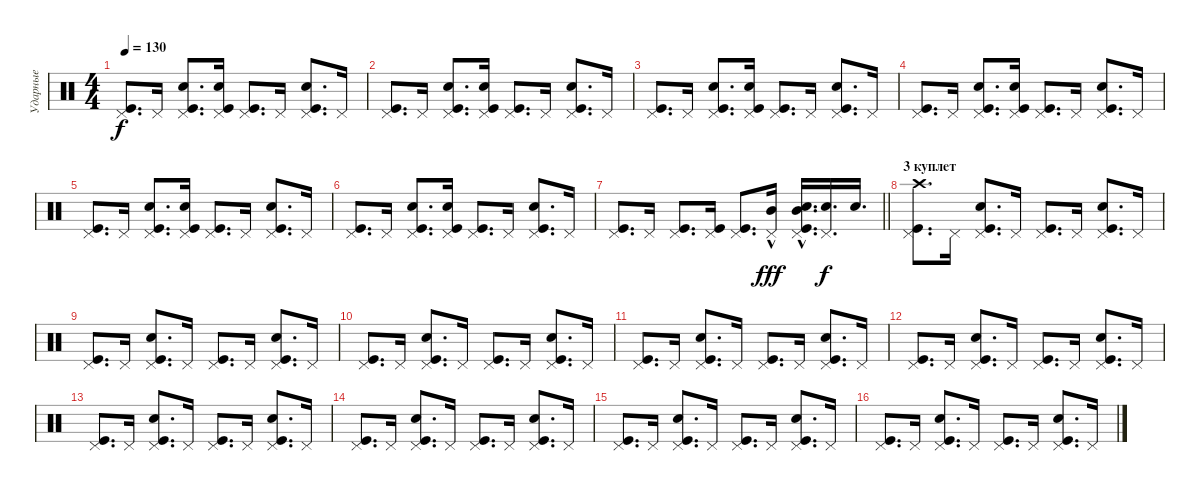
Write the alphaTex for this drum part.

\track ("Ударные" "Ударные") {instrument percussion}
\staff {score}
\articulation defaults
\ts (4 4)
\tempo 130
\clef neutral
\ks c
("Pedal Hi-Hat (hit)" "Kick (hit)").8{d dy f} "Pedal Hi-Hat (hit)".16 ("Pedal Hi-Hat (hit)" "Kick (hit)" "Snare (hit) 2").8{d} ("Pedal Hi-Hat (hit)" "Snare (hit) 2" "Kick (hit)").16 ("Pedal Hi-Hat (hit)" "Kick (hit)").8{d} "Pedal Hi-Hat (hit)".16 ("Pedal Hi-Hat (hit)" "Kick (hit)" "Snare (hit) 2").8{d} "Pedal Hi-Hat (hit)".16 |
("Pedal Hi-Hat (hit)" "Kick (hit)").8{d} "Pedal Hi-Hat (hit)".16 ("Pedal Hi-Hat (hit)" "Kick (hit)" "Snare (hit) 2").8{d} ("Pedal Hi-Hat (hit)" "Snare (hit) 2" "Kick (hit)").16 ("Pedal Hi-Hat (hit)" "Kick (hit)").8{d} "Pedal Hi-Hat (hit)".16 ("Pedal Hi-Hat (hit)" "Kick (hit)" "Snare (hit) 2").8{d} "Pedal Hi-Hat (hit)".16 |
("Pedal Hi-Hat (hit)" "Kick (hit)").8{d} "Pedal Hi-Hat (hit)".16 ("Pedal Hi-Hat (hit)" "Kick (hit)" "Snare (hit) 2").8{d} ("Pedal Hi-Hat (hit)" "Snare (hit) 2" "Kick (hit)").16 ("Pedal Hi-Hat (hit)" "Kick (hit)").8{d} "Pedal Hi-Hat (hit)".16 ("Pedal Hi-Hat (hit)" "Kick (hit)" "Snare (hit) 2").8{d} "Pedal Hi-Hat (hit)".16 |
("Pedal Hi-Hat (hit)" "Kick (hit)").8{d} "Pedal Hi-Hat (hit)".16 ("Pedal Hi-Hat (hit)" "Kick (hit)" "Snare (hit) 2").8{d} ("Pedal Hi-Hat (hit)" "Snare (hit) 2" "Kick (hit)").16 ("Pedal Hi-Hat (hit)" "Kick (hit)").8{d} "Pedal Hi-Hat (hit)".16 ("Pedal Hi-Hat (hit)" "Kick (hit)" "Snare (hit) 2").8{d} "Pedal Hi-Hat (hit)".16 |
("Pedal Hi-Hat (hit)" "Kick (hit)").8{d} "Pedal Hi-Hat (hit)".16 ("Pedal Hi-Hat (hit)" "Kick (hit)" "Snare (hit) 2").8{d} ("Pedal Hi-Hat (hit)" "Snare (hit) 2" "Kick (hit)").16 ("Pedal Hi-Hat (hit)" "Kick (hit)").8{d} "Pedal Hi-Hat (hit)".16 ("Pedal Hi-Hat (hit)" "Kick (hit)" "Snare (hit) 2").8{d} "Pedal Hi-Hat (hit)".16 |
("Pedal Hi-Hat (hit)" "Kick (hit)").8{d} "Pedal Hi-Hat (hit)".16 ("Pedal Hi-Hat (hit)" "Kick (hit)" "Snare (hit) 2").8{d} ("Pedal Hi-Hat (hit)" "Snare (hit) 2" "Kick (hit)").16 ("Pedal Hi-Hat (hit)" "Kick (hit)").8{d} "Pedal Hi-Hat (hit)".16 ("Pedal Hi-Hat (hit)" "Kick (hit)" "Snare (hit) 2").8{d} "Pedal Hi-Hat (hit)".16 |
\barLineRight lightlight
("Pedal Hi-Hat (hit)" "Kick (hit)").8{d} "Pedal Hi-Hat (hit)".16 ("Pedal Hi-Hat (hit)" "Kick (hit)").8{d} ("Pedal Hi-Hat (hit)" "Kick (hit)").16 ("Pedal Hi-Hat (hit)" "Kick (hit)").8{d} ("Pedal Hi-Hat (hit)" "Mid Tom (hit)"{hac}).16{dy fff} ("Pedal Hi-Hat (hit)" "Kick (hit)" "Mid Tom (hit)"{hac} "Snare (hit) 2").16{d} ("Pedal Hi-Hat (hit)" "Snare (hit) 2").16{d dy f} "Snare (hit) 2".16{d} |
\section ("" "3 куплет")
("Pedal Hi-Hat (hit)" "Kick (hit)" "Crash high (hit)").8{d} "Pedal Hi-Hat (hit)".16 ("Pedal Hi-Hat (hit)" "Kick (hit)" "Snare (hit) 2").8{d} "Pedal Hi-Hat (hit)".16 ("Pedal Hi-Hat (hit)" "Kick (hit)").8{d} "Pedal Hi-Hat (hit)".16 ("Pedal Hi-Hat (hit)" "Kick (hit)" "Snare (hit) 2").8{d} "Pedal Hi-Hat (hit)".16 |
("Pedal Hi-Hat (hit)" "Kick (hit)").8{d} "Pedal Hi-Hat (hit)".16 ("Pedal Hi-Hat (hit)" "Kick (hit)" "Snare (hit) 2").8{d} "Pedal Hi-Hat (hit)".16 ("Pedal Hi-Hat (hit)" "Kick (hit)").8{d} "Pedal Hi-Hat (hit)".16 ("Pedal Hi-Hat (hit)" "Kick (hit)" "Snare (hit) 2").8{d} "Pedal Hi-Hat (hit)".16 |
("Pedal Hi-Hat (hit)" "Kick (hit)").8{d} "Pedal Hi-Hat (hit)".16 ("Pedal Hi-Hat (hit)" "Kick (hit)" "Snare (hit) 2").8{d} "Pedal Hi-Hat (hit)".16 ("Pedal Hi-Hat (hit)" "Kick (hit)").8{d} "Pedal Hi-Hat (hit)".16 ("Pedal Hi-Hat (hit)" "Kick (hit)" "Snare (hit) 2").8{d} "Pedal Hi-Hat (hit)".16 |
("Pedal Hi-Hat (hit)" "Kick (hit)").8{d} "Pedal Hi-Hat (hit)".16 ("Pedal Hi-Hat (hit)" "Kick (hit)" "Snare (hit) 2").8{d} "Pedal Hi-Hat (hit)".16 ("Pedal Hi-Hat (hit)" "Kick (hit)").8{d} "Pedal Hi-Hat (hit)".16 ("Pedal Hi-Hat (hit)" "Kick (hit)" "Snare (hit) 2").8{d} "Pedal Hi-Hat (hit)".16 |
("Pedal Hi-Hat (hit)" "Kick (hit)").8{d} "Pedal Hi-Hat (hit)".16 ("Pedal Hi-Hat (hit)" "Kick (hit)" "Snare (hit) 2").8{d} "Pedal Hi-Hat (hit)".16 ("Pedal Hi-Hat (hit)" "Kick (hit)").8{d} "Pedal Hi-Hat (hit)".16 ("Pedal Hi-Hat (hit)" "Kick (hit)" "Snare (hit) 2").8{d} "Pedal Hi-Hat (hit)".16 |
("Pedal Hi-Hat (hit)" "Kick (hit)").8{d} "Pedal Hi-Hat (hit)".16 ("Pedal Hi-Hat (hit)" "Kick (hit)" "Snare (hit) 2").8{d} "Pedal Hi-Hat (hit)".16 ("Pedal Hi-Hat (hit)" "Kick (hit)").8{d} "Pedal Hi-Hat (hit)".16 ("Pedal Hi-Hat (hit)" "Kick (hit)" "Snare (hit) 2").8{d} "Pedal Hi-Hat (hit)".16 |
("Pedal Hi-Hat (hit)" "Kick (hit)").8{d} "Pedal Hi-Hat (hit)".16 ("Pedal Hi-Hat (hit)" "Kick (hit)" "Snare (hit) 2").8{d} "Pedal Hi-Hat (hit)".16 ("Pedal Hi-Hat (hit)" "Kick (hit)").8{d} "Pedal Hi-Hat (hit)".16 ("Pedal Hi-Hat (hit)" "Kick (hit)" "Snare (hit) 2").8{d} "Pedal Hi-Hat (hit)".16 |
("Pedal Hi-Hat (hit)" "Kick (hit)").8{d} "Pedal Hi-Hat (hit)".16 ("Pedal Hi-Hat (hit)" "Kick (hit)" "Snare (hit) 2").8{d} "Pedal Hi-Hat (hit)".16 ("Pedal Hi-Hat (hit)" "Kick (hit)").8{d} "Pedal Hi-Hat (hit)".16 ("Pedal Hi-Hat (hit)" "Kick (hit)" "Snare (hit) 2").8{d} "Pedal Hi-Hat (hit)".16 |
("Pedal Hi-Hat (hit)" "Kick (hit)").8{d} "Pedal Hi-Hat (hit)".16 ("Pedal Hi-Hat (hit)" "Kick (hit)" "Snare (hit) 2").8{d} "Pedal Hi-Hat (hit)".16 ("Pedal Hi-Hat (hit)" "Kick (hit)").8{d} "Pedal Hi-Hat (hit)".16 ("Pedal Hi-Hat (hit)" "Kick (hit)" "Snare (hit) 2").8{d} "Pedal Hi-Hat (hit)".16
